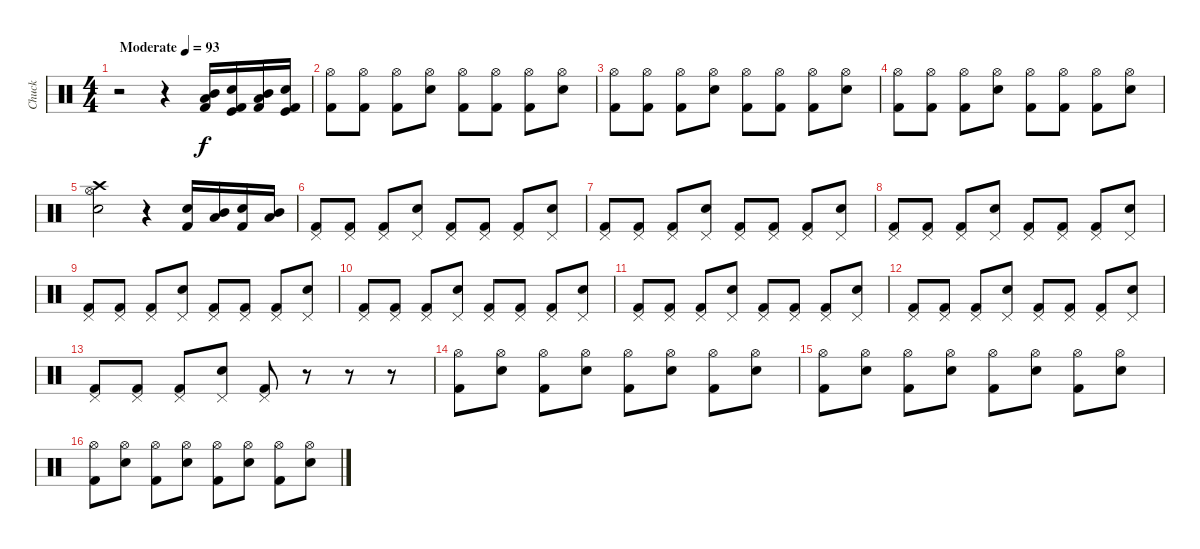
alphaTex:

\track ("Chuck" "Chuck") {instrument percussion}
\staff {score}
\articulation defaults
\ts (4 4)
\tempo (93 "Moderate")
\clef neutral
\ks c
r.2{dy f} r.4 ("Kick (hit) 2" "Low Tom (hit)" "Mid Tom (hit)").16 ("Kick (hit) 2" "Kick (hit)" "Snare (hit) 2").16 ("Kick (hit) 2" "Low Tom (hit)" "Mid Tom (hit)").16 ("Kick (hit) 2" "Kick (hit)" "Snare (hit) 2").16 |
("Hi-Hat (open)" "Kick (hit) 2").8 ("Hi-Hat (open)" "Kick (hit) 2").8 ("Hi-Hat (open)" "Kick (hit) 2").8 ("Hi-Hat (open)" "Snare (hit) 2").8 ("Hi-Hat (open)" "Kick (hit) 2").8 ("Hi-Hat (open)" "Kick (hit) 2").8 ("Hi-Hat (open)" "Kick (hit) 2").8 ("Hi-Hat (open)" "Snare (hit) 2").8 |
("Hi-Hat (open)" "Kick (hit) 2").8 ("Hi-Hat (open)" "Kick (hit) 2").8 ("Hi-Hat (open)" "Kick (hit) 2").8 ("Hi-Hat (open)" "Snare (hit) 2").8 ("Hi-Hat (open)" "Kick (hit) 2").8 ("Hi-Hat (open)" "Kick (hit) 2").8 ("Hi-Hat (open)" "Kick (hit) 2").8 ("Hi-Hat (open)" "Snare (hit) 2").8 |
("Hi-Hat (open)" "Kick (hit) 2").8 ("Hi-Hat (open)" "Kick (hit) 2").8 ("Hi-Hat (open)" "Kick (hit) 2").8 ("Hi-Hat (open)" "Snare (hit) 2").8 ("Hi-Hat (open)" "Kick (hit) 2").8 ("Hi-Hat (open)" "Kick (hit) 2").8 ("Hi-Hat (open)" "Kick (hit) 2").8 ("Hi-Hat (open)" "Snare (hit) 2").8 |
("Hi-Hat (open)" "Crash high (hit)" "Snare (hit) 2").2 r.4 ("Kick (hit) 2" "Snare (hit) 2").16 ("Mid Tom (hit)" "Low Tom (hit)").16 ("Kick (hit) 2" "Snare (hit) 2").16 ("Low Tom (hit)" "Mid Tom (hit)").16 |
("Pedal Hi-Hat (hit)" "Kick (hit) 2").8 ("Pedal Hi-Hat (hit)" "Kick (hit) 2").8 ("Pedal Hi-Hat (hit)" "Kick (hit) 2").8 ("Pedal Hi-Hat (hit)" "Snare (hit) 2").8 ("Pedal Hi-Hat (hit)" "Kick (hit) 2").8 ("Pedal Hi-Hat (hit)" "Kick (hit) 2").8 ("Pedal Hi-Hat (hit)" "Kick (hit) 2").8 ("Pedal Hi-Hat (hit)" "Snare (hit) 2").8 |
("Pedal Hi-Hat (hit)" "Kick (hit) 2").8 ("Pedal Hi-Hat (hit)" "Kick (hit) 2").8 ("Pedal Hi-Hat (hit)" "Kick (hit) 2").8 ("Pedal Hi-Hat (hit)" "Snare (hit) 2").8 ("Pedal Hi-Hat (hit)" "Kick (hit) 2").8 ("Pedal Hi-Hat (hit)" "Kick (hit) 2").8 ("Pedal Hi-Hat (hit)" "Kick (hit) 2").8 ("Pedal Hi-Hat (hit)" "Snare (hit) 2").8 |
("Pedal Hi-Hat (hit)" "Kick (hit) 2").8 ("Pedal Hi-Hat (hit)" "Kick (hit) 2").8 ("Pedal Hi-Hat (hit)" "Kick (hit) 2").8 ("Pedal Hi-Hat (hit)" "Snare (hit) 2").8 ("Pedal Hi-Hat (hit)" "Kick (hit) 2").8 ("Pedal Hi-Hat (hit)" "Kick (hit) 2").8 ("Pedal Hi-Hat (hit)" "Kick (hit) 2").8 ("Pedal Hi-Hat (hit)" "Snare (hit) 2").8 |
("Pedal Hi-Hat (hit)" "Kick (hit) 2").8 ("Pedal Hi-Hat (hit)" "Kick (hit) 2").8 ("Pedal Hi-Hat (hit)" "Kick (hit) 2").8 ("Pedal Hi-Hat (hit)" "Snare (hit) 2").8 ("Pedal Hi-Hat (hit)" "Kick (hit) 2").8 ("Pedal Hi-Hat (hit)" "Kick (hit) 2").8 ("Pedal Hi-Hat (hit)" "Kick (hit) 2").8 ("Pedal Hi-Hat (hit)" "Snare (hit) 2").8 |
("Pedal Hi-Hat (hit)" "Kick (hit) 2").8 ("Pedal Hi-Hat (hit)" "Kick (hit) 2").8 ("Pedal Hi-Hat (hit)" "Kick (hit) 2").8 ("Pedal Hi-Hat (hit)" "Snare (hit) 2").8 ("Pedal Hi-Hat (hit)" "Kick (hit) 2").8 ("Pedal Hi-Hat (hit)" "Kick (hit) 2").8 ("Pedal Hi-Hat (hit)" "Kick (hit) 2").8 ("Pedal Hi-Hat (hit)" "Snare (hit) 2").8 |
("Pedal Hi-Hat (hit)" "Kick (hit) 2").8 ("Pedal Hi-Hat (hit)" "Kick (hit) 2").8 ("Pedal Hi-Hat (hit)" "Kick (hit) 2").8 ("Pedal Hi-Hat (hit)" "Snare (hit) 2").8 ("Pedal Hi-Hat (hit)" "Kick (hit) 2").8 ("Pedal Hi-Hat (hit)" "Kick (hit) 2").8 ("Pedal Hi-Hat (hit)" "Kick (hit) 2").8 ("Pedal Hi-Hat (hit)" "Snare (hit) 2").8 |
("Pedal Hi-Hat (hit)" "Kick (hit) 2").8 ("Pedal Hi-Hat (hit)" "Kick (hit) 2").8 ("Pedal Hi-Hat (hit)" "Kick (hit) 2").8 ("Pedal Hi-Hat (hit)" "Snare (hit) 2").8 ("Pedal Hi-Hat (hit)" "Kick (hit) 2").8 ("Pedal Hi-Hat (hit)" "Kick (hit) 2").8 ("Pedal Hi-Hat (hit)" "Kick (hit) 2").8 ("Pedal Hi-Hat (hit)" "Snare (hit) 2").8 |
("Pedal Hi-Hat (hit)" "Kick (hit) 2").8 ("Pedal Hi-Hat (hit)" "Kick (hit) 2").8 ("Pedal Hi-Hat (hit)" "Kick (hit) 2").8 ("Pedal Hi-Hat (hit)" "Snare (hit) 2").8 ("Pedal Hi-Hat (hit)" "Kick (hit) 2").8 r.8 r.8 r.8 |
("Hi-Hat (open)" "Kick (hit) 2").8 ("Hi-Hat (open)" "Snare (hit) 2").8 ("Hi-Hat (open)" "Kick (hit) 2").8 ("Hi-Hat (open)" "Snare (hit) 2").8 ("Hi-Hat (open)" "Kick (hit) 2").8 ("Hi-Hat (open)" "Snare (hit) 2").8 ("Hi-Hat (open)" "Kick (hit) 2").8 ("Hi-Hat (open)" "Snare (hit) 2").8 |
("Hi-Hat (open)" "Kick (hit) 2").8 ("Hi-Hat (open)" "Snare (hit) 2").8 ("Hi-Hat (open)" "Kick (hit) 2").8 ("Hi-Hat (open)" "Snare (hit) 2").8 ("Hi-Hat (open)" "Kick (hit) 2").8 ("Hi-Hat (open)" "Snare (hit) 2").8 ("Hi-Hat (open)" "Kick (hit) 2").8 ("Hi-Hat (open)" "Snare (hit) 2").8 |
("Hi-Hat (open)" "Kick (hit) 2").8 ("Hi-Hat (open)" "Snare (hit) 2").8 ("Hi-Hat (open)" "Kick (hit) 2").8 ("Hi-Hat (open)" "Snare (hit) 2").8 ("Hi-Hat (open)" "Kick (hit) 2").8 ("Hi-Hat (open)" "Snare (hit) 2").8 ("Hi-Hat (open)" "Kick (hit) 2").8 ("Hi-Hat (open)" "Snare (hit) 2").8
